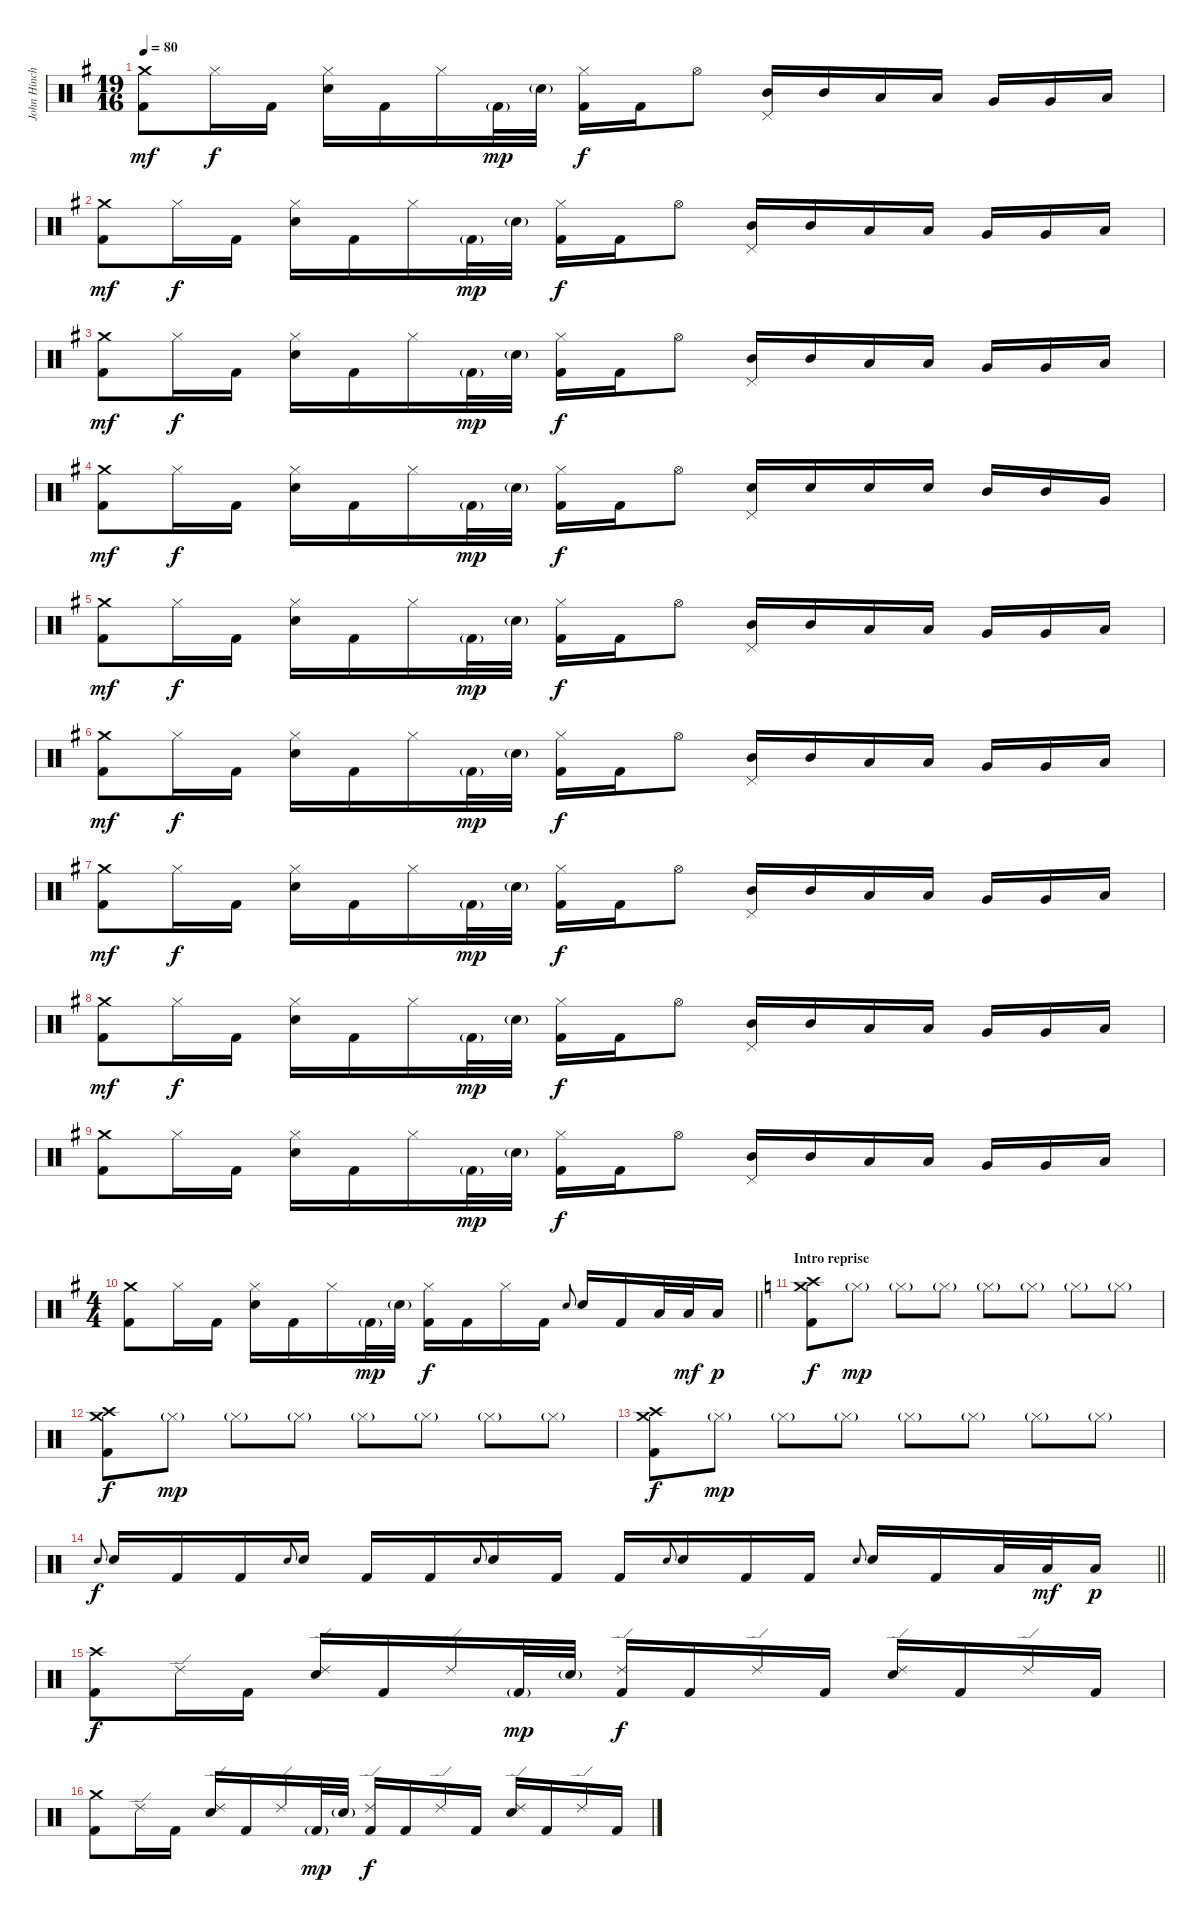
\track ("John Hinch" "John Hinch") {instrument percussion}
\staff {score}
\articulation defaults
\ts (19 16)
\tempo 80
\clef neutral
\ks eminor
("Crash medium (hit)" "Kick (hit) 2").8{dy mf} "Hi-Hat (closed)".16{dy f} "Kick (hit) 2".16 ("Hi-Hat (closed)" "Electric Snare (hit)").16 "Kick (hit) 2".16 "Hi-Hat (closed)".16 "Kick (hit) 2"{g}.32{dy mp} "Electric Snare (hit)"{g}.32 ("Hi-Hat (closed)" "Kick (hit) 2").16{dy f} "Kick (hit) 2".16 "Hi-Hat (open)".8 ("Pedal Hi-Hat (hit)" "Mid Tom (hit)").16 "Mid Tom (hit)".16 "Low Tom (hit)".16 "Low Tom (hit)".16 "Very Low Tom (hit)".16 "Very Low Tom (hit)".16 "Low Floor Tom (hit)".16 |
("Crash medium (hit)" "Kick (hit) 2").8{dy mf} "Hi-Hat (closed)".16{dy f} "Kick (hit) 2".16 ("Hi-Hat (closed)" "Electric Snare (hit)").16 "Kick (hit) 2".16 "Hi-Hat (closed)".16 "Kick (hit) 2"{g}.32{dy mp} "Electric Snare (hit)"{g}.32 ("Hi-Hat (closed)" "Kick (hit) 2").16{dy f} "Kick (hit) 2".16 "Hi-Hat (open)".8 ("Pedal Hi-Hat (hit)" "Mid Tom (hit)").16 "Mid Tom (hit)".16 "Low Tom (hit)".16 "Low Tom (hit)".16 "Very Low Tom (hit)".16 "Very Low Tom (hit)".16 "Low Floor Tom (hit)".16 |
("Crash medium (hit)" "Kick (hit) 2").8{dy mf} "Hi-Hat (closed)".16{dy f} "Kick (hit) 2".16 ("Hi-Hat (closed)" "Electric Snare (hit)").16 "Kick (hit) 2".16 "Hi-Hat (closed)".16 "Kick (hit) 2"{g}.32{dy mp} "Electric Snare (hit)"{g}.32 ("Hi-Hat (closed)" "Kick (hit) 2").16{dy f} "Kick (hit) 2".16 "Hi-Hat (open)".8 ("Pedal Hi-Hat (hit)" "Mid Tom (hit)").16 "Mid Tom (hit)".16 "Low Tom (hit)".16 "Low Tom (hit)".16 "Very Low Tom (hit)".16 "Very Low Tom (hit)".16 "Low Floor Tom (hit)".16 |
("Crash medium (hit)" "Kick (hit) 2").8{dy mf} "Hi-Hat (closed)".16{dy f} "Kick (hit) 2".16 ("Hi-Hat (closed)" "Electric Snare (hit)").16 "Kick (hit) 2".16 "Hi-Hat (closed)".16 "Kick (hit) 2"{g}.32{dy mp} "Electric Snare (hit)"{g}.32 ("Hi-Hat (closed)" "Kick (hit) 2").16{dy f} "Kick (hit) 2".16 "Hi-Hat (open)".8 ("Pedal Hi-Hat (hit)" "Electric Snare (hit)").16 "Electric Snare (hit)".16 "Electric Snare (hit)".16 "Electric Snare (hit)".16 "Mid Tom (hit)".16 "Mid Tom (hit)".16 "Very Low Tom (hit)".16 |
("Crash medium (hit)" "Kick (hit) 2").8{dy mf} "Hi-Hat (closed)".16{dy f} "Kick (hit) 2".16 ("Hi-Hat (closed)" "Electric Snare (hit)").16 "Kick (hit) 2".16 "Hi-Hat (closed)".16 "Kick (hit) 2"{g}.32{dy mp} "Electric Snare (hit)"{g}.32 ("Hi-Hat (closed)" "Kick (hit) 2").16{dy f} "Kick (hit) 2".16 "Hi-Hat (open)".8 ("Pedal Hi-Hat (hit)" "Mid Tom (hit)").16 "Mid Tom (hit)".16 "Low Tom (hit)".16 "Low Tom (hit)".16 "Very Low Tom (hit)".16 "Very Low Tom (hit)".16 "Low Floor Tom (hit)".16 |
("Crash medium (hit)" "Kick (hit) 2").8{dy mf} "Hi-Hat (closed)".16{dy f} "Kick (hit) 2".16 ("Hi-Hat (closed)" "Electric Snare (hit)").16 "Kick (hit) 2".16 "Hi-Hat (closed)".16 "Kick (hit) 2"{g}.32{dy mp} "Electric Snare (hit)"{g}.32 ("Hi-Hat (closed)" "Kick (hit) 2").16{dy f} "Kick (hit) 2".16 "Hi-Hat (open)".8 ("Pedal Hi-Hat (hit)" "Mid Tom (hit)").16 "Mid Tom (hit)".16 "Low Tom (hit)".16 "Low Tom (hit)".16 "Very Low Tom (hit)".16 "Very Low Tom (hit)".16 "Low Floor Tom (hit)".16 |
("Crash medium (hit)" "Kick (hit) 2").8{dy mf} "Hi-Hat (closed)".16{dy f} "Kick (hit) 2".16 ("Hi-Hat (closed)" "Electric Snare (hit)").16 "Kick (hit) 2".16 "Hi-Hat (closed)".16 "Kick (hit) 2"{g}.32{dy mp} "Electric Snare (hit)"{g}.32 ("Hi-Hat (closed)" "Kick (hit) 2").16{dy f} "Kick (hit) 2".16 "Hi-Hat (open)".8 ("Pedal Hi-Hat (hit)" "Mid Tom (hit)").16 "Mid Tom (hit)".16 "Low Tom (hit)".16 "Low Tom (hit)".16 "Very Low Tom (hit)".16 "Very Low Tom (hit)".16 "Low Floor Tom (hit)".16 |
("Crash medium (hit)" "Kick (hit) 2").8{dy mf} "Hi-Hat (closed)".16{dy f} "Kick (hit) 2".16 ("Hi-Hat (closed)" "Electric Snare (hit)").16 "Kick (hit) 2".16 "Hi-Hat (closed)".16 "Kick (hit) 2"{g}.32{dy mp} "Electric Snare (hit)"{g}.32 ("Hi-Hat (closed)" "Kick (hit) 2").16{dy f} "Kick (hit) 2".16 "Hi-Hat (open)".8 ("Pedal Hi-Hat (hit)" "Mid Tom (hit)").16 "Mid Tom (hit)".16 "Low Tom (hit)".16 "Low Tom (hit)".16 "Very Low Tom (hit)".16 "Very Low Tom (hit)".16 "Low Floor Tom (hit)".16 |
("Crash medium (hit)" "Kick (hit) 2").8 "Hi-Hat (closed)".16 "Kick (hit) 2".16 ("Hi-Hat (closed)" "Electric Snare (hit)").16 "Kick (hit) 2".16 "Hi-Hat (closed)".16 "Kick (hit) 2"{g}.32{dy mp} "Electric Snare (hit)"{g}.32 ("Hi-Hat (closed)" "Kick (hit) 2").16{dy f} "Kick (hit) 2".16 "Hi-Hat (open)".8 ("Pedal Hi-Hat (hit)" "Mid Tom (hit)").16 "Mid Tom (hit)".16 "Low Tom (hit)".16 "Low Tom (hit)".16 "Very Low Tom (hit)".16 "Very Low Tom (hit)".16 "Low Floor Tom (hit)".16 |
\ts (4 4)
\barLineRight lightlight
("Crash medium (hit)" "Kick (hit) 2").8 "Hi-Hat (closed)".16 "Kick (hit) 2".16 ("Hi-Hat (closed)" "Electric Snare (hit)").16 "Kick (hit) 2".16 "Hi-Hat (closed)".16 "Kick (hit) 2"{g}.32{dy mp} "Electric Snare (hit)"{g}.32 ("Hi-Hat (closed)" "Kick (hit) 2").16{dy f} "Kick (hit) 2".16 "Hi-Hat (closed)".16 "Kick (hit) 2".16 "Electric Snare (hit)".8{gr onbeat} "Electric Snare (hit)".16 "Kick (hit) 2".16 "Low Tom (hit)".32 "Low Tom (hit)".32{dy mf} "Low Tom (hit)".16{dy p} |
\section ("" "Intro reprise")
\ks aminor
("Crash medium (hit)" "Crash high (hit)" "Kick (hit) 2").8{dy f} "Hi-Hat (closed)"{g}.8{dy mp} "Hi-Hat (closed)"{g}.8 "Hi-Hat (closed)"{g}.8 "Hi-Hat (closed)"{g}.8 "Hi-Hat (closed)"{g}.8 "Hi-Hat (closed)"{g}.8 "Hi-Hat (closed)"{g}.8 |
("Crash medium (hit)" "Crash high (hit)" "Kick (hit) 2").8{dy f} "Hi-Hat (closed)"{g}.8{dy mp} "Hi-Hat (closed)"{g}.8 "Hi-Hat (closed)"{g}.8 "Hi-Hat (closed)"{g}.8 "Hi-Hat (closed)"{g}.8 "Hi-Hat (closed)"{g}.8 "Hi-Hat (closed)"{g}.8 |
("Crash medium (hit)" "Crash high (hit)" "Kick (hit) 2").8{dy f} "Hi-Hat (closed)"{g}.8{dy mp} "Hi-Hat (closed)"{g}.8 "Hi-Hat (closed)"{g}.8 "Hi-Hat (closed)"{g}.8 "Hi-Hat (closed)"{g}.8 "Hi-Hat (closed)"{g}.8 "Hi-Hat (closed)"{g}.8 |
\barLineRight lightlight "Electric Snare (hit)".8{gr onbeat dy f} "Electric Snare (hit)".16 "Kick (hit) 2".16 "Kick (hit) 2".16 "Electric Snare (hit)".8{gr onbeat} "Electric Snare (hit)".16 "Kick (hit) 2".16 "Kick (hit) 2".16 "Electric Snare (hit)".8{gr onbeat} "Electric Snare (hit)".16 "Kick (hit) 2".16 "Kick (hit) 2".16 "Electric Snare (hit)".8{gr onbeat} "Electric Snare (hit)".16 "Kick (hit) 2".16 "Kick (hit) 2".16 "Electric Snare (hit)".8{gr onbeat} "Electric Snare (hit)".16 "Kick (hit) 2".16 "Low Tom (hit)".32 "Low Tom (hit)".32{dy mf} "Low Tom (hit)".16{dy p}
|
("Crash high (hit)" "Kick (hit) 2").8{dy f} "Ride (edge) 2".16 "Kick (hit) 2".16 ("Ride (edge) 2" "Electric Snare (hit)").16 "Kick (hit) 2".16 "Ride (edge) 2".16 "Kick (hit) 2"{g}.32{dy mp} "Electric Snare (hit)"{g}.32 ("Ride (edge) 2" "Kick (hit) 2").16{dy f} "Kick (hit) 2".16 "Ride (edge) 2".16 "Kick (hit) 2".16 ("Ride (edge) 2" "Electric Snare (hit)").16 "Kick (hit) 2".16 "Ride (edge) 2".16 "Kick (hit) 2".16 |
("Crash medium (hit)" "Kick (hit) 2").8 "Ride (edge) 2".16 "Kick (hit) 2".16 ("Ride (edge) 2" "Electric Snare (hit)").16 "Kick (hit) 2".16 "Ride (edge) 2".16 "Kick (hit) 2"{g}.32{dy mp} "Electric Snare (hit)"{g}.32 ("Ride (edge) 2" "Kick (hit) 2").16{dy f} "Kick (hit) 2".16 "Ride (edge) 2".16 "Kick (hit) 2".16 ("Ride (edge) 2" "Electric Snare (hit)").16 "Kick (hit) 2".16 "Ride (edge) 2".16 "Kick (hit) 2".16
